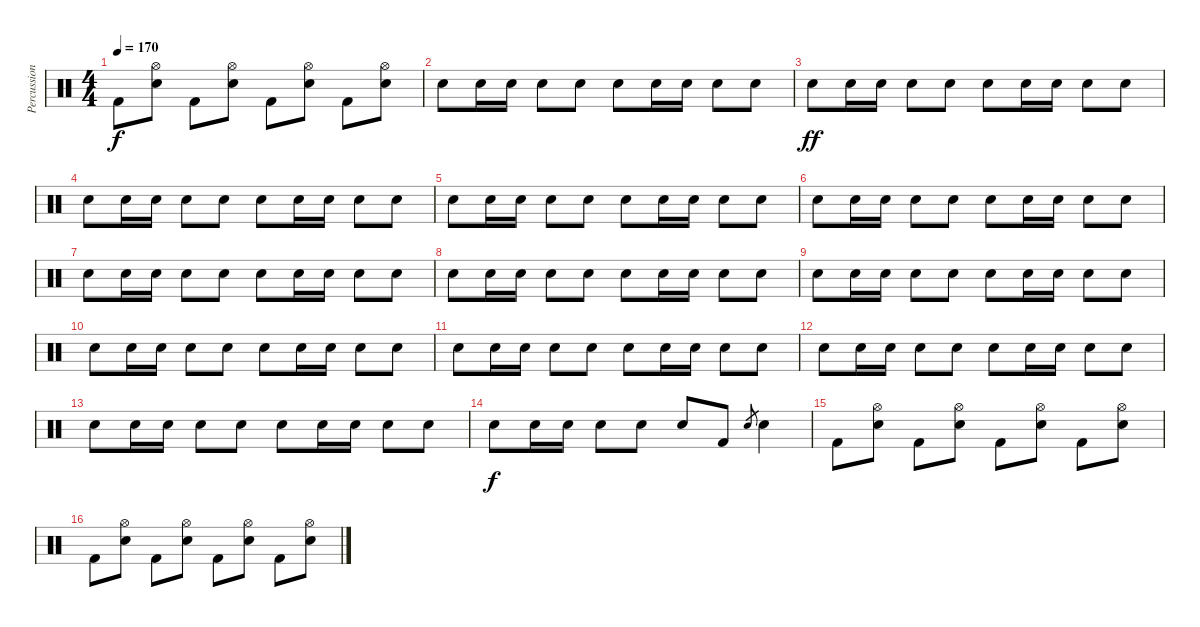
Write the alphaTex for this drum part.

\track ("Percussion" "Percussion") {instrument percussion}
\staff {score}
\articulation defaults
\ts (4 4)
\tempo 170
\clef neutral
\ks c "Kick (hit) 2".8{dy f}
("Hi-Hat (open)" "Electric Snare (hit)").8 "Kick (hit) 2".8 ("Hi-Hat (open)" "Electric Snare (hit)").8 "Kick (hit) 2".8 ("Hi-Hat (open)" "Electric Snare (hit)").8 "Kick (hit) 2".8 ("Hi-Hat (open)" "Electric Snare (hit)").8 |
"Electric Snare (hit)".8 "Electric Snare (hit)".16 "Electric Snare (hit)".16 "Electric Snare (hit)".8 "Electric Snare (hit)".8 "Electric Snare (hit)".8 "Electric Snare (hit)".16 "Electric Snare (hit)".16 "Electric Snare (hit)".8 "Electric Snare (hit)".8 |
"Electric Snare (hit)".8{dy ff} "Electric Snare (hit)".16 "Electric Snare (hit)".16 "Electric Snare (hit)".8 "Electric Snare (hit)".8 "Electric Snare (hit)".8 "Electric Snare (hit)".16 "Electric Snare (hit)".16 "Electric Snare (hit)".8 "Electric Snare (hit)".8 |
"Electric Snare (hit)".8 "Electric Snare (hit)".16 "Electric Snare (hit)".16 "Electric Snare (hit)".8 "Electric Snare (hit)".8 "Electric Snare (hit)".8 "Electric Snare (hit)".16 "Electric Snare (hit)".16 "Electric Snare (hit)".8 "Electric Snare (hit)".8 |
"Electric Snare (hit)".8 "Electric Snare (hit)".16 "Electric Snare (hit)".16 "Electric Snare (hit)".8 "Electric Snare (hit)".8 "Electric Snare (hit)".8 "Electric Snare (hit)".16 "Electric Snare (hit)".16 "Electric Snare (hit)".8 "Electric Snare (hit)".8 |
"Electric Snare (hit)".8 "Electric Snare (hit)".16 "Electric Snare (hit)".16 "Electric Snare (hit)".8 "Electric Snare (hit)".8 "Electric Snare (hit)".8 "Electric Snare (hit)".16 "Electric Snare (hit)".16 "Electric Snare (hit)".8 "Electric Snare (hit)".8 |
"Electric Snare (hit)".8 "Electric Snare (hit)".16 "Electric Snare (hit)".16 "Electric Snare (hit)".8 "Electric Snare (hit)".8 "Electric Snare (hit)".8 "Electric Snare (hit)".16 "Electric Snare (hit)".16 "Electric Snare (hit)".8 "Electric Snare (hit)".8 |
"Electric Snare (hit)".8 "Electric Snare (hit)".16 "Electric Snare (hit)".16 "Electric Snare (hit)".8 "Electric Snare (hit)".8 "Electric Snare (hit)".8 "Electric Snare (hit)".16 "Electric Snare (hit)".16 "Electric Snare (hit)".8 "Electric Snare (hit)".8 |
"Electric Snare (hit)".8 "Electric Snare (hit)".16 "Electric Snare (hit)".16 "Electric Snare (hit)".8 "Electric Snare (hit)".8 "Electric Snare (hit)".8 "Electric Snare (hit)".16 "Electric Snare (hit)".16 "Electric Snare (hit)".8 "Electric Snare (hit)".8 |
"Electric Snare (hit)".8 "Electric Snare (hit)".16 "Electric Snare (hit)".16 "Electric Snare (hit)".8 "Electric Snare (hit)".8 "Electric Snare (hit)".8 "Electric Snare (hit)".16 "Electric Snare (hit)".16 "Electric Snare (hit)".8 "Electric Snare (hit)".8 |
"Electric Snare (hit)".8 "Electric Snare (hit)".16 "Electric Snare (hit)".16 "Electric Snare (hit)".8 "Electric Snare (hit)".8 "Electric Snare (hit)".8 "Electric Snare (hit)".16 "Electric Snare (hit)".16 "Electric Snare (hit)".8 "Electric Snare (hit)".8 |
"Electric Snare (hit)".8 "Electric Snare (hit)".16 "Electric Snare (hit)".16 "Electric Snare (hit)".8 "Electric Snare (hit)".8 "Electric Snare (hit)".8 "Electric Snare (hit)".16 "Electric Snare (hit)".16 "Electric Snare (hit)".8 "Electric Snare (hit)".8 |
"Electric Snare (hit)".8 "Electric Snare (hit)".16 "Electric Snare (hit)".16 "Electric Snare (hit)".8 "Electric Snare (hit)".8 "Electric Snare (hit)".8 "Electric Snare (hit)".16 "Electric Snare (hit)".16 "Electric Snare (hit)".8 "Electric Snare (hit)".8 |
"Electric Snare (hit)".8{dy f} "Electric Snare (hit)".16 "Electric Snare (hit)".16 "Electric Snare (hit)".8 "Electric Snare (hit)".8 "Electric Snare (hit)".8 "Kick (hit) 2".8 "Electric Snare (hit)".8{gr} "Electric Snare (hit)".4 |
"Kick (hit) 2".8 ("Hi-Hat (open)" "Electric Snare (hit)").8 "Kick (hit) 2".8 ("Hi-Hat (open)" "Electric Snare (hit)").8 "Kick (hit) 2".8 ("Hi-Hat (open)" "Electric Snare (hit)").8 "Kick (hit) 2".8 ("Hi-Hat (open)" "Electric Snare (hit)").8 |
"Kick (hit) 2".8 ("Hi-Hat (open)" "Electric Snare (hit)").8 "Kick (hit) 2".8 ("Hi-Hat (open)" "Electric Snare (hit)").8 "Kick (hit) 2".8 ("Hi-Hat (open)" "Electric Snare (hit)").8 "Kick (hit) 2".8 ("Hi-Hat (open)" "Electric Snare (hit)").8
